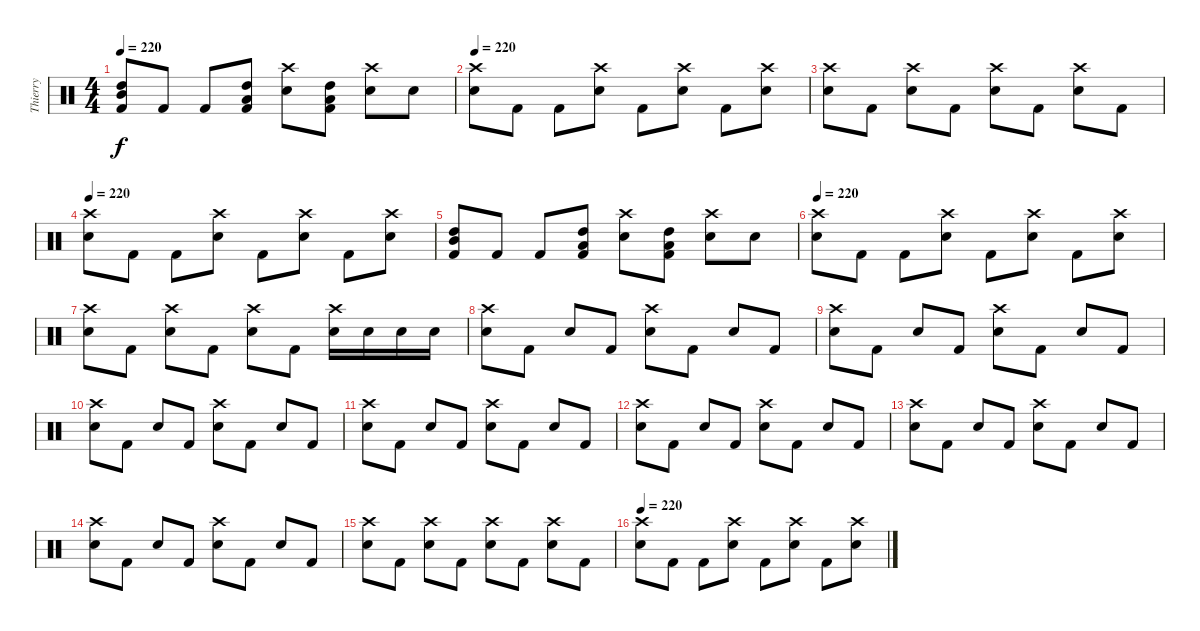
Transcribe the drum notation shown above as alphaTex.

\track ("Thierry" "Thierry") {instrument percussion}
\staff {score}
\articulation defaults
\ts (4 4)
\tempo 220
\clef neutral
\ks c
("Mid Tom (hit)" "High Tom (hit)" "Kick (hit) 2").8{dy f} "Kick (hit) 2".8 "Kick (hit) 2".8 ("Low Tom (hit)" "High Tom (hit)" "Kick (hit) 2").8 ("Crash high (hit)" "Electric Snare (hit)").8 ("Low Tom (hit)" "High Tom (hit)" "Kick (hit) 2").8 ("Crash high (hit)" "Electric Snare (hit)").8 "Electric Snare (hit)".8 |
\tempo 220
("Crash high (hit)" "Electric Snare (hit)").8 "Kick (hit) 2".8 "Kick (hit) 2".8 ("Crash high (hit)" "Electric Snare (hit)").8 "Kick (hit) 2".8 ("Crash high (hit)" "Electric Snare (hit)").8 "Kick (hit) 2".8 ("Crash high (hit)" "Electric Snare (hit)").8 |
("Crash high (hit)" "Electric Snare (hit)").8 "Kick (hit) 2".8 ("Crash high (hit)" "Electric Snare (hit)").8 "Kick (hit) 2".8 ("Crash high (hit)" "Electric Snare (hit)").8 "Kick (hit) 2".8 ("Crash high (hit)" "Electric Snare (hit)").8 "Kick (hit) 2".8 |
\tempo 220
("Crash high (hit)" "Electric Snare (hit)").8 "Kick (hit) 2".8 "Kick (hit) 2".8 ("Crash high (hit)" "Electric Snare (hit)").8 "Kick (hit) 2".8 ("Crash high (hit)" "Electric Snare (hit)").8 "Kick (hit) 2".8 ("Crash high (hit)" "Electric Snare (hit)").8 |
("Mid Tom (hit)" "High Tom (hit)" "Kick (hit) 2").8 "Kick (hit) 2".8 "Kick (hit) 2".8 ("Low Tom (hit)" "High Tom (hit)" "Kick (hit) 2").8 ("Crash high (hit)" "Electric Snare (hit)").8 ("Low Tom (hit)" "High Tom (hit)" "Kick (hit) 2").8 ("Crash high (hit)" "Electric Snare (hit)").8 "Electric Snare (hit)".8 |
\tempo 220
("Crash high (hit)" "Electric Snare (hit)").8 "Kick (hit) 2".8 "Kick (hit) 2".8 ("Crash high (hit)" "Electric Snare (hit)").8 "Kick (hit) 2".8 ("Crash high (hit)" "Electric Snare (hit)").8 "Kick (hit) 2".8 ("Crash high (hit)" "Electric Snare (hit)").8 |
("Crash high (hit)" "Electric Snare (hit)").8 "Kick (hit) 2".8 ("Crash high (hit)" "Electric Snare (hit)").8 "Kick (hit) 2".8 ("Crash high (hit)" "Electric Snare (hit)").8 "Kick (hit) 2".8 ("Crash high (hit)" "Electric Snare (hit)").16 "Electric Snare (hit)".16 "Electric Snare (hit)".16 "Electric Snare (hit)".16 |
("Electric Snare (hit)" "Crash high (hit)").8 "Kick (hit) 2".8 "Electric Snare (hit)".8 "Kick (hit) 2".8 ("Electric Snare (hit)" "Crash high (hit)").8 "Kick (hit) 2".8 "Electric Snare (hit)".8 "Kick (hit) 2".8 |
("Electric Snare (hit)" "Crash high (hit)").8 "Kick (hit) 2".8 "Electric Snare (hit)".8 "Kick (hit) 2".8 ("Electric Snare (hit)" "Crash high (hit)").8 "Kick (hit) 2".8 "Electric Snare (hit)".8 "Kick (hit) 2".8 |
("Electric Snare (hit)" "Crash high (hit)").8 "Kick (hit) 2".8 "Electric Snare (hit)".8 "Kick (hit) 2".8 ("Electric Snare (hit)" "Crash high (hit)").8 "Kick (hit) 2".8 "Electric Snare (hit)".8 "Kick (hit) 2".8 |
("Electric Snare (hit)" "Crash high (hit)").8 "Kick (hit) 2".8 "Electric Snare (hit)".8 "Kick (hit) 2".8 ("Electric Snare (hit)" "Crash high (hit)").8 "Kick (hit) 2".8 "Electric Snare (hit)".8 "Kick (hit) 2".8 |
("Electric Snare (hit)" "Crash high (hit)").8 "Kick (hit) 2".8 "Electric Snare (hit)".8 "Kick (hit) 2".8 ("Electric Snare (hit)" "Crash high (hit)").8 "Kick (hit) 2".8 "Electric Snare (hit)".8 "Kick (hit) 2".8 |
("Electric Snare (hit)" "Crash high (hit)").8 "Kick (hit) 2".8 "Electric Snare (hit)".8 "Kick (hit) 2".8 ("Electric Snare (hit)" "Crash high (hit)").8 "Kick (hit) 2".8 "Electric Snare (hit)".8 "Kick (hit) 2".8 |
("Electric Snare (hit)" "Crash high (hit)").8 "Kick (hit) 2".8 "Electric Snare (hit)".8 "Kick (hit) 2".8 ("Electric Snare (hit)" "Crash high (hit)").8 "Kick (hit) 2".8 "Electric Snare (hit)".8 "Kick (hit) 2".8 |
("Electric Snare (hit)" "Crash high (hit)").8 "Kick (hit) 2".8 ("Electric Snare (hit)" "Crash high (hit)").8 "Kick (hit) 2".8 ("Electric Snare (hit)" "Crash high (hit)").8 "Kick (hit) 2".8 ("Electric Snare (hit)" "Crash high (hit)").8 "Kick (hit) 2".8 |
\tempo 220
("Crash high (hit)" "Electric Snare (hit)").8 "Kick (hit) 2".8 "Kick (hit) 2".8 ("Crash high (hit)" "Electric Snare (hit)").8 "Kick (hit) 2".8 ("Crash high (hit)" "Electric Snare (hit)").8 "Kick (hit) 2".8 ("Crash high (hit)" "Electric Snare (hit)").8
